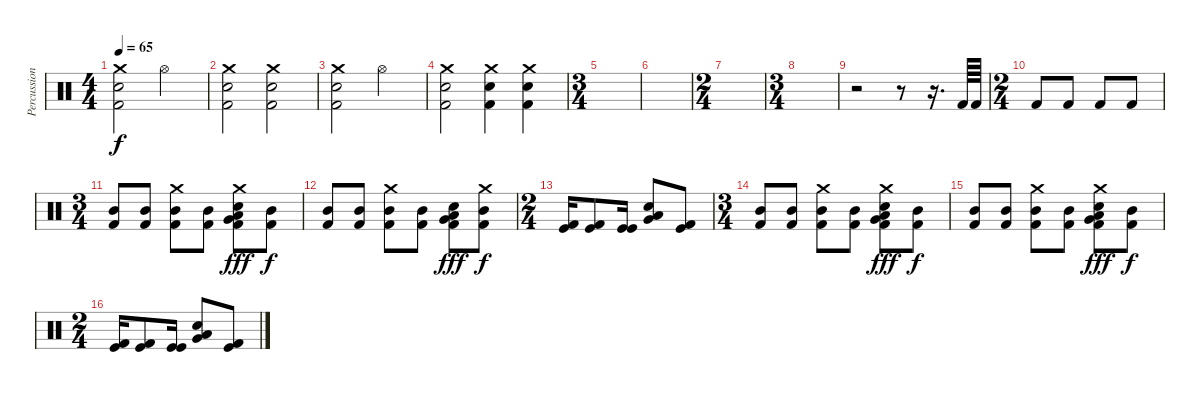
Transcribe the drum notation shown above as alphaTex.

\track ("Percussion" "Percussion") {instrument percussion}
\staff {score}
\articulation defaults
\ts (4 4)
\tempo 65
\clef neutral
\ks c
("Crash medium (hit)" "Electric Snare (hit)" "Kick (hit) 2").2{dy f} "Hi-Hat (open)".2 |
("Crash medium (hit)" "Electric Snare (hit)" "Kick (hit) 2").2 ("Crash medium (hit)" "Electric Snare (hit)" "Kick (hit) 2").2 |
("Crash medium (hit)" "Electric Snare (hit)" "Kick (hit) 2").2 "Hi-Hat (open)".2 |
("Crash medium (hit)" "Electric Snare (hit)" "Kick (hit) 2").2 ("Crash medium (hit)" "Electric Snare (hit)" "Kick (hit) 2").4 ("Crash medium (hit)" "Electric Snare (hit)" "Kick (hit) 2").4 |
\ts (3 4)
|
|
\ts (2 4)
|
\ts (3 4)
|
r.2 r.8 r.16{d} "Kick (hit) 2".64 "Kick (hit) 2".64 |
\ts (2 4)
"Kick (hit) 2".8 "Kick (hit) 2".8 "Kick (hit) 2".8 "Kick (hit) 2".8 |
\ts (3 4)
("Mid Tom (hit)" "Kick (hit) 2").8 ("Mid Tom (hit)" "Kick (hit) 2").8 ("Crash medium (hit)" "Mid Tom (hit)" "Kick (hit) 2").8 ("Mid Tom (hit)" "Kick (hit) 2").8 ("Crash medium (hit)" "Snare (hit) 2" "Very Low Tom (hit)" "Low Floor Tom (hit)" "Kick (hit) 2").8{dy fff} ("Mid Tom (hit)" "Kick (hit) 2").8{dy f} |
("Mid Tom (hit)" "Kick (hit) 2").8 ("Mid Tom (hit)" "Kick (hit) 2").8 ("Crash medium (hit)" "Mid Tom (hit)" "Kick (hit) 2").8 ("Mid Tom (hit)" "Kick (hit) 2").8 ("Snare (hit) 2" "Very Low Tom (hit)" "Low Floor Tom (hit)" "Kick (hit) 2").8{dy fff} ("Crash medium (hit)" "Mid Tom (hit)" "Kick (hit) 2").8{dy f} |
\ts (2 4)
("Kick (hit)" "Kick (hit) 2").16 ("Kick (hit)" "Kick (hit) 2").8 ("Kick (hit)" "Kick (hit)").16 ("Very Low Tom (hit)" "Low Floor Tom (hit)" "Snare (hit) 2").8 ("Kick (hit) 2" "Kick (hit)").8 |
\ts (3 4)
("Mid Tom (hit)" "Kick (hit) 2").8 ("Mid Tom (hit)" "Kick (hit) 2").8 ("Crash medium (hit)" "Mid Tom (hit)" "Kick (hit) 2").8 ("Mid Tom (hit)" "Kick (hit) 2").8 ("Crash medium (hit)" "Snare (hit) 2" "Very Low Tom (hit)" "Low Floor Tom (hit)" "Kick (hit) 2").8{dy fff} ("Mid Tom (hit)" "Kick (hit) 2").8{dy f} |
("Mid Tom (hit)" "Kick (hit) 2").8 ("Mid Tom (hit)" "Kick (hit) 2").8 ("Crash medium (hit)" "Mid Tom (hit)" "Kick (hit) 2").8 ("Mid Tom (hit)" "Kick (hit) 2").8 ("Crash medium (hit)" "Snare (hit) 2" "Very Low Tom (hit)" "Low Floor Tom (hit)" "Kick (hit) 2").8{dy fff} ("Mid Tom (hit)" "Kick (hit) 2").8{dy f} |
\ts (2 4)
("Kick (hit)" "Kick (hit) 2").16 ("Kick (hit)" "Kick (hit) 2").8 ("Kick (hit)" "Kick (hit)").16 ("Very Low Tom (hit)" "Low Floor Tom (hit)" "Snare (hit) 2").8 ("Kick (hit) 2" "Kick (hit)").8
